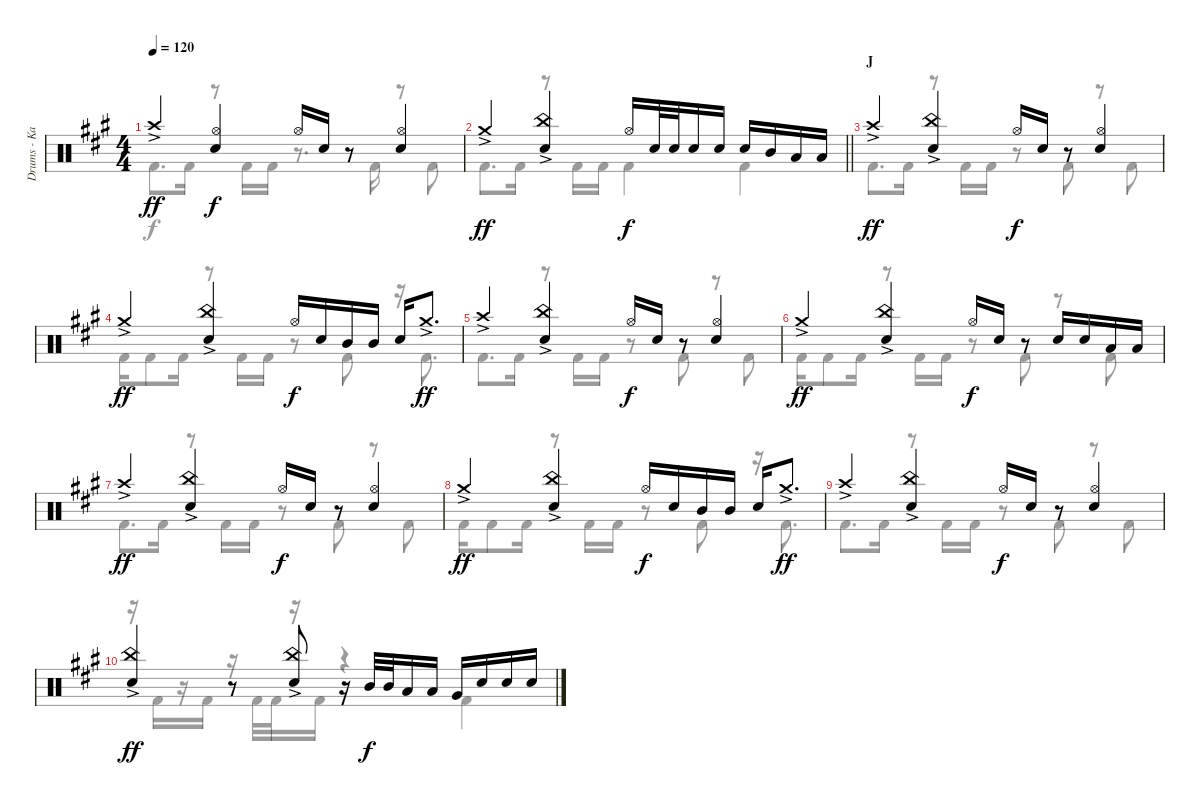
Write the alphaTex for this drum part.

\track ("Drums - Kai" "Drums - Ka") {instrument percussion}
\staff {score}
\articulation defaults
\voice
\ts (4 4)
\tempo 120
\clef neutral
\ks a "Crash high (hit)"{ac}.4{dy ff}
("Hi-Hat (open)" "Snare (hit) 2").4{dy f} "Hi-Hat (open)".16 "Snare (hit) 2".16 r.8 ("Hi-Hat (open)" "Snare (hit) 2").4 |
\barLineRight lightlight "Crash medium (hit)"{ac}.4{dy ff}
("China (hit)"{ac} "Snare (hit) 2").4 "Hi-Hat (open)".16{dy f} "Snare (hit) 2".32 "Snare (hit) 2".32 "Snare (hit) 2".16 "Snare (hit) 2".16 "Snare (hit) 2".16 "Mid Tom (hit)".16 "Low Tom (hit)".16 "Low Tom (hit)".16 |
\section ("" "J")
"Crash high (hit)"{ac}.4{dy ff} ("China (hit)"{ac} "Snare (hit) 2").4 "Hi-Hat (open)".16{dy f} "Snare (hit) 2".16 r.8 ("Hi-Hat (open)" "Snare (hit) 2").4 |
"Crash medium (hit)"{ac}.4{dy ff} ("China (hit)"{ac} "Snare (hit) 2").4 "Hi-Hat (open)".16{dy f} "Snare (hit) 2".16 "Mid Tom (hit)".16 "Mid Tom (hit)".16 "Snare (hit) 2".16 "Crash medium (hit)"{ac}.8{d dy ff} |
"Crash high (hit)"{ac}.4 ("China (hit)"{ac} "Snare (hit) 2").4 "Hi-Hat (open)".16{dy f} "Snare (hit) 2".16 r.8 ("Hi-Hat (open)" "Snare (hit) 2").4 |
"Crash medium (hit)"{ac}.4{dy ff} ("China (hit)"{ac} "Snare (hit) 2").4 "Hi-Hat (open)".16{dy f} "Snare (hit) 2".16 r.8 "Snare (hit) 2".16 "Snare (hit) 2".16 "Low Tom (hit)".16 "Low Tom (hit)".16 |
"Crash high (hit)"{ac}.4{dy ff} ("China (hit)"{ac} "Snare (hit) 2").4 "Hi-Hat (open)".16{dy f} "Snare (hit) 2".16 r.8 ("Hi-Hat (open)" "Snare (hit) 2").4 |
"Crash medium (hit)"{ac}.4{dy ff} ("China (hit)"{ac} "Snare (hit) 2").4 "Hi-Hat (open)".16{dy f} "Snare (hit) 2".16 "Mid Tom (hit)".16 "Mid Tom (hit)".16 "Snare (hit) 2".16 "Crash medium (hit)"{ac}.8{d dy ff} |
"Crash high (hit)"{ac}.4 ("China (hit)"{ac} "Snare (hit) 2").4 "Hi-Hat (open)".16{dy f} "Snare (hit) 2".16 r.8 ("Hi-Hat (open)" "Snare (hit) 2").4 |
("China (hit)"{ac} "Snare (hit) 2").4{dy ff} r.8 ("China (hit)"{ac} "Snare (hit) 2").8 r.16 "Mid Tom (hit)".32{dy f} "Mid Tom (hit)".32 "Low Tom (hit)".16 "Low Tom (hit)".16 "Very Low Tom (hit)".16 "Snare (hit) 2".16 "Snare (hit) 2".16 "Snare (hit) 2".16
\voice
\clef neutral
\ottava regular
\simile none
\ks a "Kick (hit) 2".8{d dy f} "Kick (hit) 2".16
r.8 "Kick (hit) 2".16 "Kick (hit) 2".16 r.8{d} "Kick (hit) 2".16 r.8 "Kick (hit) 2".8 |
\barLineRight lightlight "Kick (hit) 2".8{d} "Kick (hit) 2".16
r.8 "Kick (hit) 2".16 "Kick (hit) 2".16 "Kick (hit) 2".4 "Kick (hit) 2".4 |
"Kick (hit) 2".8{d} "Kick (hit) 2".16 r.8 "Kick (hit) 2".16 "Kick (hit) 2".16 r.8 "Kick (hit) 2".8 r.8 "Kick (hit) 2".8 |
"Kick (hit) 2".16 "Kick (hit) 2".8 "Kick (hit) 2".16 r.8 "Kick (hit) 2".16 "Kick (hit) 2".16 r.8 "Kick (hit) 2".8 r.16 "Kick (hit) 2".8{d} |
"Kick (hit) 2".8{d} "Kick (hit) 2".16 r.8 "Kick (hit) 2".16 "Kick (hit) 2".16 r.8 "Kick (hit) 2".8 r.8 "Kick (hit) 2".8 |
"Kick (hit) 2".16 "Kick (hit) 2".8 "Kick (hit) 2".16 r.8 "Kick (hit) 2".16 "Kick (hit) 2".16 r.8 "Kick (hit) 2".8 r.8 "Kick (hit) 2".8 |
"Kick (hit) 2".8{d} "Kick (hit) 2".16 r.8 "Kick (hit) 2".16 "Kick (hit) 2".16 r.8 "Kick (hit) 2".8 r.8 "Kick (hit) 2".8 |
"Kick (hit) 2".16 "Kick (hit) 2".8 "Kick (hit) 2".16 r.8 "Kick (hit) 2".16 "Kick (hit) 2".16 r.8 "Kick (hit) 2".8 r.16 "Kick (hit) 2".8{d} |
"Kick (hit) 2".8{d} "Kick (hit) 2".16 r.8 "Kick (hit) 2".16 "Kick (hit) 2".16 r.8 "Kick (hit) 2".8 r.8 "Kick (hit) 2".8 |
r.16 "Kick (hit) 2".16 r.16 "Kick (hit) 2".16 r.16 "Kick (hit) 2".32 "Kick (hit) 2".32 r.16 "Kick (hit) 2".16 r.4 "Kick (hit) 2".4
